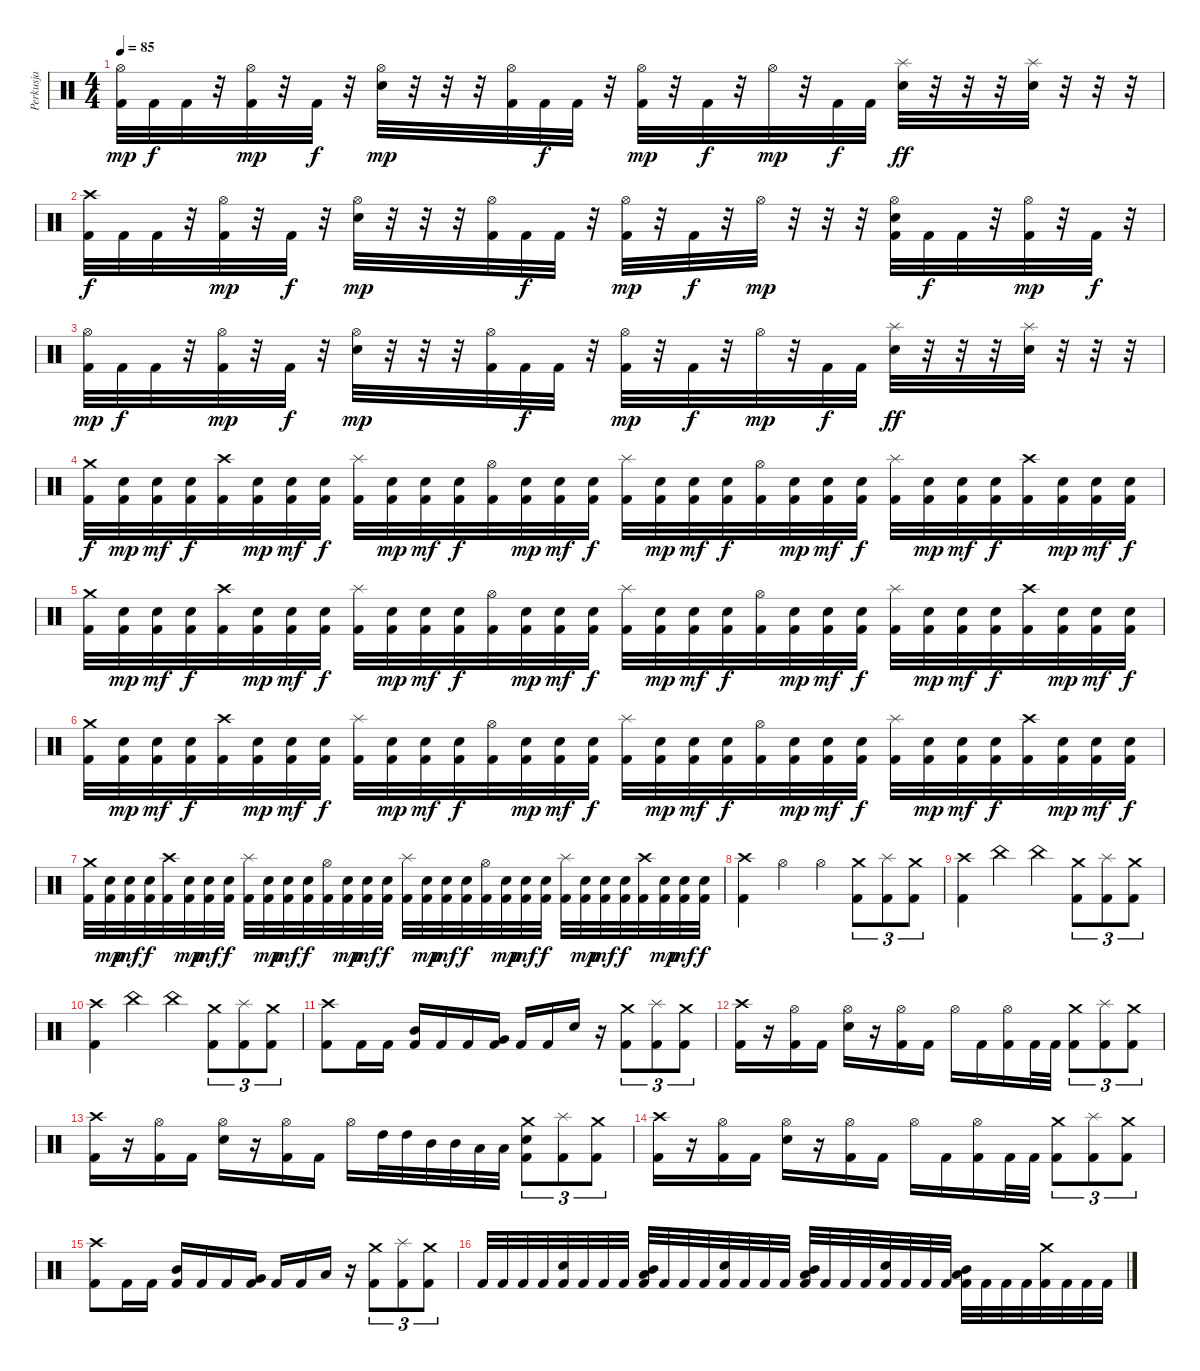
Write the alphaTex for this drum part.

\track ("Perkusja" "Perkusja") {instrument percussion}
\staff {score}
\articulation defaults
\ts (4 4)
\tempo 85
\clef neutral
\ks c
("Hi-Hat (open)" "Kick (hit) 2").32{dy mp} "Kick (hit) 2".32{dy f} "Kick (hit) 2".32 r.32 ("Hi-Hat (open)" "Kick (hit) 2").32{dy mp} r.32 "Kick (hit) 2".32{dy f} r.32 ("Electric Snare (hit)" "Hi-Hat (open)").32{dy mp} r.32 r.32 r.32 ("Hi-Hat (open)" "Kick (hit) 2").32 "Kick (hit) 2".32{dy f} "Kick (hit) 2".32 r.32 ("Hi-Hat (open)" "Kick (hit) 2").32{dy mp} r.32 "Kick (hit) 2".32{dy f} r.32 "Hi-Hat (open)".32{dy mp} r.32 "Kick (hit) 2".32{dy f} "Kick (hit) 2".32 ("Electric Snare (hit)" "Splash (hit)").32{dy ff} r.32 r.32 r.32 ("Electric Snare (hit)" "Splash (hit)").32 r.32 r.32 r.32 |
("Crash high (hit)" "Kick (hit) 2").32{dy f} "Kick (hit) 2".32 "Kick (hit) 2".32 r.32 ("Hi-Hat (open)" "Kick (hit) 2").32{dy mp} r.32 "Kick (hit) 2".32{dy f} r.32 ("Electric Snare (hit)" "Hi-Hat (open)").32{dy mp} r.32 r.32 r.32 ("Hi-Hat (open)" "Kick (hit) 2").32 "Kick (hit) 2".32{dy f} "Kick (hit) 2".32 r.32 ("Hi-Hat (open)" "Kick (hit) 2").32{dy mp} r.32 "Kick (hit) 2".32{dy f} r.32 "Hi-Hat (open)".32{dy mp} r.32 r.32 r.32 ("Electric Snare (hit)" "Hi-Hat (open)" "Kick (hit) 2").32 "Kick (hit) 2".32{dy f} "Kick (hit) 2".32 r.32 ("Hi-Hat (open)" "Kick (hit) 2").32{dy mp} r.32 "Kick (hit) 2".32{dy f} r.32 |
("Hi-Hat (open)" "Kick (hit) 2").32{dy mp} "Kick (hit) 2".32{dy f} "Kick (hit) 2".32 r.32 ("Hi-Hat (open)" "Kick (hit) 2").32{dy mp} r.32 "Kick (hit) 2".32{dy f} r.32 ("Electric Snare (hit)" "Hi-Hat (open)").32{dy mp} r.32 r.32 r.32 ("Hi-Hat (open)" "Kick (hit) 2").32 "Kick (hit) 2".32{dy f} "Kick (hit) 2".32 r.32 ("Hi-Hat (open)" "Kick (hit) 2").32{dy mp} r.32 "Kick (hit) 2".32{dy f} r.32 "Hi-Hat (open)".32{dy mp} r.32 "Kick (hit) 2".32{dy f} "Kick (hit) 2".32 ("Electric Snare (hit)" "Splash (hit)").32{dy ff} r.32 r.32 r.32 ("Electric Snare (hit)" "Splash (hit)").32 r.32 r.32 r.32 |
("Crash medium (hit)" "Kick (hit) 2").32{dy f} ("Electric Snare (hit)" "Kick (hit) 2").32{dy mp} ("Electric Snare (hit)" "Kick (hit) 2").32{dy mf} ("Electric Snare (hit)" "Kick (hit) 2").32{dy f} ("Crash high (hit)" "Kick (hit) 2").32 ("Electric Snare (hit)" "Kick (hit) 2").32{dy mp} ("Electric Snare (hit)" "Kick (hit) 2").32{dy mf} ("Electric Snare (hit)" "Kick (hit) 2").32{dy f} ("Splash (hit)" "Kick (hit) 2").32 ("Electric Snare (hit)" "Kick (hit) 2").32{dy mp} ("Electric Snare (hit)" "Kick (hit) 2").32{dy mf} ("Electric Snare (hit)" "Kick (hit) 2").32{dy f} ("Hi-Hat (open)" "Kick (hit) 2").32 ("Electric Snare (hit)" "Kick (hit) 2").32{dy mp} ("Electric Snare (hit)" "Kick (hit) 2").32{dy mf} ("Electric Snare (hit)" "Kick (hit) 2").32{dy f} ("Splash (hit)" "Kick (hit) 2").32 ("Electric Snare (hit)" "Kick (hit) 2").32{dy mp} ("Electric Snare (hit)" "Kick (hit) 2").32{dy mf} ("Electric Snare (hit)" "Kick (hit) 2").32{dy f} ("Hi-Hat (open)" "Kick (hit) 2").32 ("Electric Snare (hit)" "Kick (hit) 2").32{dy mp} ("Electric Snare (hit)" "Kick (hit) 2").32{dy mf} ("Electric Snare (hit)" "Kick (hit) 2").32{dy f} ("Splash (hit)" "Kick (hit) 2").32 ("Electric Snare (hit)" "Kick (hit) 2").32{dy mp} ("Electric Snare (hit)" "Kick (hit) 2").32{dy mf} ("Electric Snare (hit)" "Kick (hit) 2").32{dy f} ("Crash high (hit)" "Kick (hit) 2").32 ("Electric Snare (hit)" "Kick (hit) 2").32{dy mp} ("Electric Snare (hit)" "Kick (hit) 2").32{dy mf} ("Electric Snare (hit)" "Kick (hit) 2").32{dy f} |
("Crash medium (hit)" "Kick (hit) 2").32 ("Electric Snare (hit)" "Kick (hit) 2").32{dy mp} ("Electric Snare (hit)" "Kick (hit) 2").32{dy mf} ("Electric Snare (hit)" "Kick (hit) 2").32{dy f} ("Crash high (hit)" "Kick (hit) 2").32 ("Electric Snare (hit)" "Kick (hit) 2").32{dy mp} ("Electric Snare (hit)" "Kick (hit) 2").32{dy mf} ("Electric Snare (hit)" "Kick (hit) 2").32{dy f} ("Splash (hit)" "Kick (hit) 2").32 ("Electric Snare (hit)" "Kick (hit) 2").32{dy mp} ("Electric Snare (hit)" "Kick (hit) 2").32{dy mf} ("Electric Snare (hit)" "Kick (hit) 2").32{dy f} ("Hi-Hat (open)" "Kick (hit) 2").32 ("Electric Snare (hit)" "Kick (hit) 2").32{dy mp} ("Electric Snare (hit)" "Kick (hit) 2").32{dy mf} ("Electric Snare (hit)" "Kick (hit) 2").32{dy f} ("Splash (hit)" "Kick (hit) 2").32 ("Electric Snare (hit)" "Kick (hit) 2").32{dy mp} ("Electric Snare (hit)" "Kick (hit) 2").32{dy mf} ("Electric Snare (hit)" "Kick (hit) 2").32{dy f} ("Hi-Hat (open)" "Kick (hit) 2").32 ("Electric Snare (hit)" "Kick (hit) 2").32{dy mp} ("Electric Snare (hit)" "Kick (hit) 2").32{dy mf} ("Electric Snare (hit)" "Kick (hit) 2").32{dy f} ("Splash (hit)" "Kick (hit) 2").32 ("Electric Snare (hit)" "Kick (hit) 2").32{dy mp} ("Electric Snare (hit)" "Kick (hit) 2").32{dy mf} ("Electric Snare (hit)" "Kick (hit) 2").32{dy f} ("Crash high (hit)" "Kick (hit) 2").32 ("Electric Snare (hit)" "Kick (hit) 2").32{dy mp} ("Electric Snare (hit)" "Kick (hit) 2").32{dy mf} ("Electric Snare (hit)" "Kick (hit) 2").32{dy f} |
("Crash medium (hit)" "Kick (hit) 2").32 ("Electric Snare (hit)" "Kick (hit) 2").32{dy mp} ("Electric Snare (hit)" "Kick (hit) 2").32{dy mf} ("Electric Snare (hit)" "Kick (hit) 2").32{dy f} ("Crash high (hit)" "Kick (hit) 2").32 ("Electric Snare (hit)" "Kick (hit) 2").32{dy mp} ("Electric Snare (hit)" "Kick (hit) 2").32{dy mf} ("Electric Snare (hit)" "Kick (hit) 2").32{dy f} ("Splash (hit)" "Kick (hit) 2").32 ("Electric Snare (hit)" "Kick (hit) 2").32{dy mp} ("Electric Snare (hit)" "Kick (hit) 2").32{dy mf} ("Electric Snare (hit)" "Kick (hit) 2").32{dy f} ("Hi-Hat (open)" "Kick (hit) 2").32 ("Electric Snare (hit)" "Kick (hit) 2").32{dy mp} ("Electric Snare (hit)" "Kick (hit) 2").32{dy mf} ("Electric Snare (hit)" "Kick (hit) 2").32{dy f} ("Splash (hit)" "Kick (hit) 2").32 ("Electric Snare (hit)" "Kick (hit) 2").32{dy mp} ("Electric Snare (hit)" "Kick (hit) 2").32{dy mf} ("Electric Snare (hit)" "Kick (hit) 2").32{dy f} ("Hi-Hat (open)" "Kick (hit) 2").32 ("Electric Snare (hit)" "Kick (hit) 2").32{dy mp} ("Electric Snare (hit)" "Kick (hit) 2").32{dy mf} ("Electric Snare (hit)" "Kick (hit) 2").32{dy f} ("Splash (hit)" "Kick (hit) 2").32 ("Electric Snare (hit)" "Kick (hit) 2").32{dy mp} ("Electric Snare (hit)" "Kick (hit) 2").32{dy mf} ("Electric Snare (hit)" "Kick (hit) 2").32{dy f} ("Crash high (hit)" "Kick (hit) 2").32 ("Electric Snare (hit)" "Kick (hit) 2").32{dy mp} ("Electric Snare (hit)" "Kick (hit) 2").32{dy mf} ("Electric Snare (hit)" "Kick (hit) 2").32{dy f} |
("Crash medium (hit)" "Kick (hit) 2").32 ("Electric Snare (hit)" "Kick (hit) 2").32{dy mp} ("Electric Snare (hit)" "Kick (hit) 2").32{dy mf} ("Electric Snare (hit)" "Kick (hit) 2").32{dy f} ("Crash high (hit)" "Kick (hit) 2").32 ("Electric Snare (hit)" "Kick (hit) 2").32{dy mp} ("Electric Snare (hit)" "Kick (hit) 2").32{dy mf} ("Electric Snare (hit)" "Kick (hit) 2").32{dy f} ("Splash (hit)" "Kick (hit) 2").32 ("Electric Snare (hit)" "Kick (hit) 2").32{dy mp} ("Electric Snare (hit)" "Kick (hit) 2").32{dy mf} ("Electric Snare (hit)" "Kick (hit) 2").32{dy f} ("Hi-Hat (open)" "Kick (hit) 2").32 ("Electric Snare (hit)" "Kick (hit) 2").32{dy mp} ("Electric Snare (hit)" "Kick (hit) 2").32{dy mf} ("Electric Snare (hit)" "Kick (hit) 2").32{dy f} ("Splash (hit)" "Kick (hit) 2").32 ("Electric Snare (hit)" "Kick (hit) 2").32{dy mp} ("Electric Snare (hit)" "Kick (hit) 2").32{dy mf} ("Electric Snare (hit)" "Kick (hit) 2").32{dy f} ("Hi-Hat (open)" "Kick (hit) 2").32 ("Electric Snare (hit)" "Kick (hit) 2").32{dy mp} ("Electric Snare (hit)" "Kick (hit) 2").32{dy mf} ("Electric Snare (hit)" "Kick (hit) 2").32{dy f} ("Splash (hit)" "Kick (hit) 2").32 ("Electric Snare (hit)" "Kick (hit) 2").32{dy mp} ("Electric Snare (hit)" "Kick (hit) 2").32{dy mf} ("Electric Snare (hit)" "Kick (hit) 2").32{dy f} ("Crash high (hit)" "Kick (hit) 2").32 ("Electric Snare (hit)" "Kick (hit) 2").32{dy mp} ("Electric Snare (hit)" "Kick (hit) 2").32{dy mf} ("Electric Snare (hit)" "Kick (hit) 2").32{dy f} |
("Crash high (hit)" "Kick (hit) 2").4 "Hi-Hat (open)".4 "Hi-Hat (open)".4 ("Crash medium (hit)" "Kick (hit) 2").8{tu (3 2)} ("Splash (hit)" "Kick (hit) 2").8{tu (3 2)} ("Crash medium (hit)" "Kick (hit) 2").8{tu (3 2)} |
("Crash high (hit)" "Kick (hit) 2").4 "China (hit)".4 "China (hit)".4 ("Crash medium (hit)" "Kick (hit) 2").8{tu (3 2)} ("Splash (hit)" "Kick (hit) 2").8{tu (3 2)} ("Crash medium (hit)" "Kick (hit) 2").8{tu (3 2)} |
("Crash high (hit)" "Kick (hit) 2").4 "China (hit)".4 "China (hit)".4 ("Crash medium (hit)" "Kick (hit) 2").8{tu (3 2)} ("Splash (hit)" "Kick (hit) 2").8{tu (3 2)} ("Crash medium (hit)" "Kick (hit) 2").8{tu (3 2)} |
("Crash high (hit)" "Kick (hit) 2").8 "Kick (hit) 2".16 "Kick (hit) 2".16 ("Mid Tom (hit)" "Kick (hit) 2").16 "Kick (hit) 2".16 "Kick (hit) 2".16 ("Very Low Tom (hit)" "Kick (hit) 2").16 "Kick (hit) 2".16 "Kick (hit) 2".16 "Electric Snare (hit)".16 r.16 ("Crash medium (hit)" "Kick (hit) 2").8{tu (3 2)} ("Splash (hit)" "Kick (hit) 2").8{tu (3 2)} ("Crash medium (hit)" "Kick (hit) 2").8{tu (3 2)} |
("Crash high (hit)" "Kick (hit) 2").16 r.16 ("Hi-Hat (open)" "Kick (hit) 2").16 "Kick (hit) 2".16 ("Electric Snare (hit)" "Hi-Hat (open)").16 r.16 ("Hi-Hat (open)" "Kick (hit) 2").16 "Kick (hit) 2".16 "Hi-Hat (open)".16 "Kick (hit) 2".16 ("Hi-Hat (open)" "Kick (hit) 2").16 "Kick (hit) 2".32 "Kick (hit) 2".32 ("Crash medium (hit)" "Kick (hit) 2").8{tu (3 2)} ("Splash (hit)" "Kick (hit) 2").8{tu (3 2)} ("Crash medium (hit)" "Kick (hit) 2").8{tu (3 2)} |
("Crash high (hit)" "Kick (hit) 2").16 r.16 ("Hi-Hat (open)" "Kick (hit) 2").16 "Kick (hit) 2".16 ("Electric Snare (hit)" "Hi-Hat (open)").16 r.16 ("Hi-Hat (open)" "Kick (hit) 2").16 "Kick (hit) 2".16 "Hi-Hat (open)".16 "High Tom (hit)".32 "High Tom (hit)".32 "Mid Tom (hit)".32 "Mid Tom (hit)".32 "Low Tom (hit)".32 "Low Tom (hit)".32 ("Electric Snare (hit)" "Crash medium (hit)" "Kick (hit) 2").8{tu (3 2)} ("Splash (hit)" "Kick (hit) 2").8{tu (3 2)} ("Crash medium (hit)" "Kick (hit) 2").8{tu (3 2)} |
("Crash high (hit)" "Kick (hit) 2").16 r.16 ("Hi-Hat (open)" "Kick (hit) 2").16 "Kick (hit) 2".16 ("Electric Snare (hit)" "Hi-Hat (open)").16 r.16 ("Hi-Hat (open)" "Kick (hit) 2").16 "Kick (hit) 2".16 "Hi-Hat (open)".16 "Kick (hit) 2".16 ("Hi-Hat (open)" "Kick (hit) 2").16 "Kick (hit) 2".32 "Kick (hit) 2".32 ("Crash medium (hit)" "Kick (hit) 2").8{tu (3 2)} ("Splash (hit)" "Kick (hit) 2").8{tu (3 2)} ("Crash medium (hit)" "Kick (hit) 2").8{tu (3 2)} |
("Crash high (hit)" "Kick (hit) 2").8 "Kick (hit) 2".16 "Kick (hit) 2".16 ("Mid Tom (hit)" "Kick (hit) 2").16 "Kick (hit) 2".16 "Kick (hit) 2".16 ("Very Low Tom (hit)" "Kick (hit) 2").16 "Kick (hit) 2".16 "Kick (hit) 2".16 "Low Floor Tom (hit)".16 r.16 ("Crash medium (hit)" "Kick (hit) 2").8{tu (3 2)} ("Splash (hit)" "Kick (hit) 2").8{tu (3 2)} ("Crash medium (hit)" "Kick (hit) 2").8{tu (3 2)} |
"Kick (hit) 2".32 "Kick (hit) 2".32 "Kick (hit) 2".32 "Kick (hit) 2".32 ("Electric Snare (hit)" "Kick (hit) 2").32 "Kick (hit) 2".32 "Kick (hit) 2".32 "Kick (hit) 2".32 ("Mid Tom (hit)" "Low Tom (hit)" "Kick (hit) 2").32 "Kick (hit) 2".32 "Kick (hit) 2".32 "Kick (hit) 2".32 ("Electric Snare (hit)" "Kick (hit) 2").32 "Kick (hit) 2".32 "Kick (hit) 2".32 "Kick (hit) 2".32 ("Mid Tom (hit)" "Low Tom (hit)" "Kick (hit) 2").32 "Kick (hit) 2".32 "Kick (hit) 2".32 "Kick (hit) 2".32 ("Electric Snare (hit)" "Kick (hit) 2").32 "Kick (hit) 2".32 "Kick (hit) 2".32 "Kick (hit) 2".32 ("Mid Tom (hit)" "Low Tom (hit)" "Kick (hit) 2").32 "Kick (hit) 2".32 "Kick (hit) 2".32 "Kick (hit) 2".32 ("Crash medium (hit)" "Kick (hit) 2").32 "Kick (hit) 2".32 "Kick (hit) 2".32 "Kick (hit) 2".32
